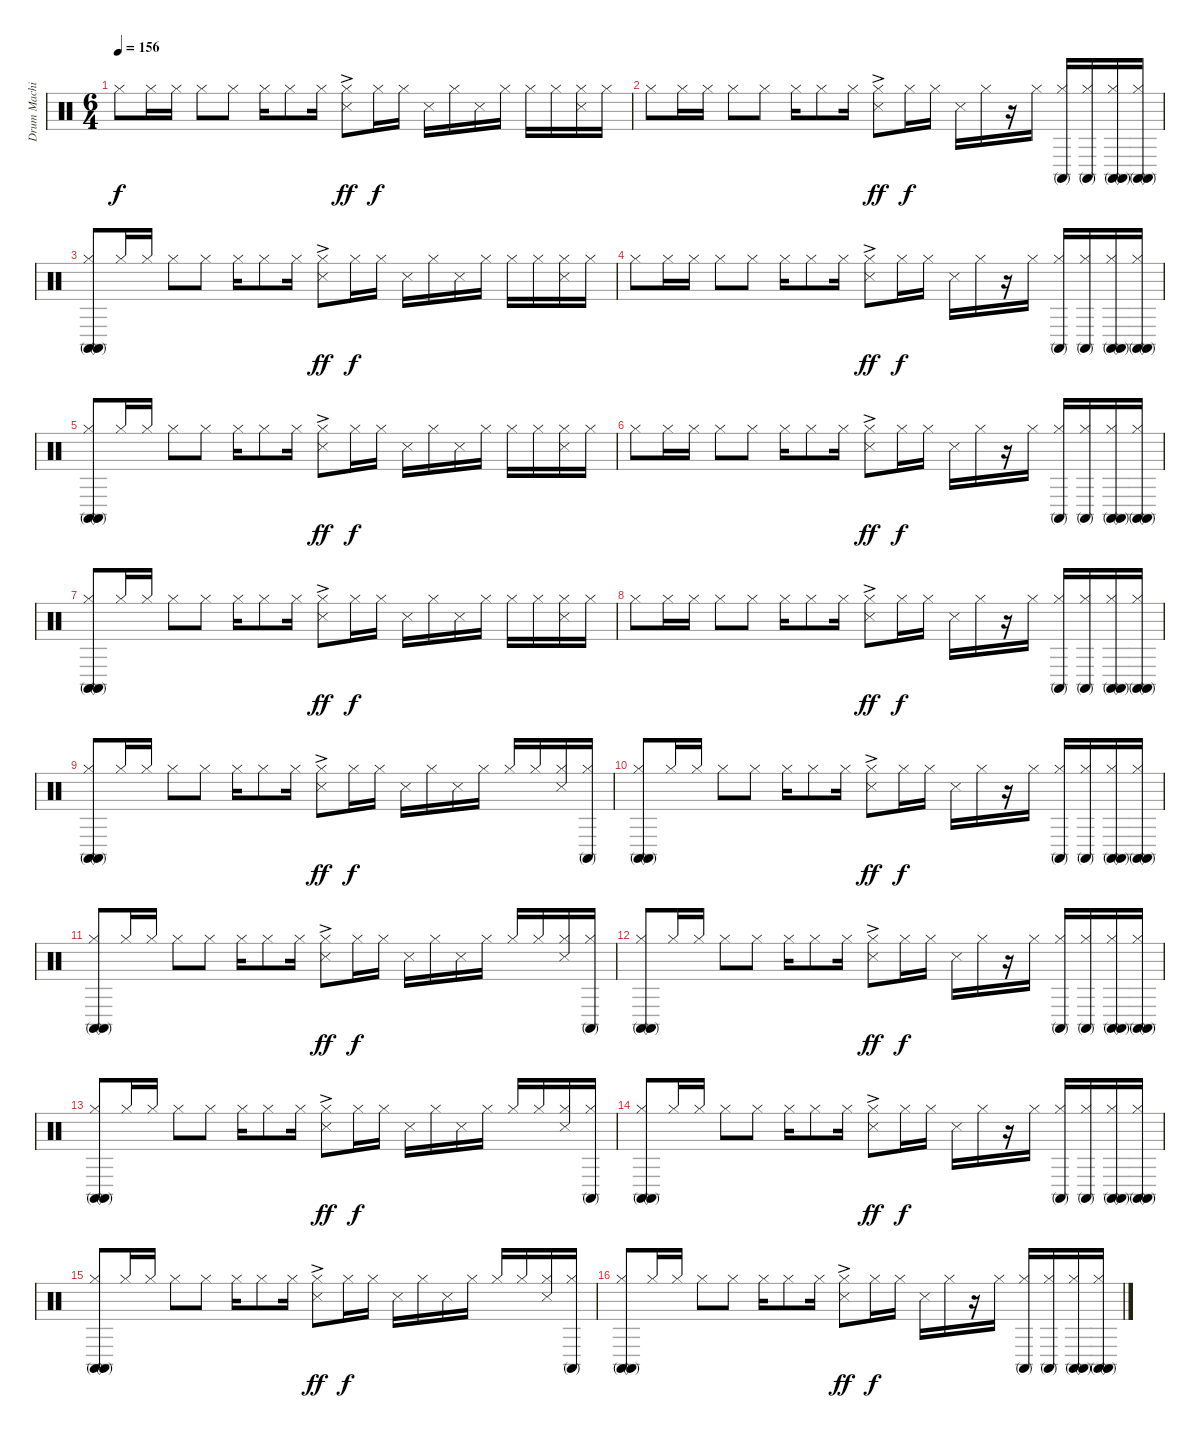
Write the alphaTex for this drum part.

\track ("Drum Machine" "Drum Machi") {instrument percussion bank 210}
\staff {score}
\articulation defaults
\ts (6 4)
\tempo 156
\clef neutral
\ks c "Hi-Hat (closed)".8{dy f} "Hi-Hat (closed)".16 "Hi-Hat (closed)".16 "Hi-Hat (closed)".8 "Hi-Hat (closed)".8 "Hi-Hat (closed)".16 "Hi-Hat (closed)".8 "Hi-Hat (closed)".16
("Hi-Hat (closed)"{ac} "Snare (side stick) 3").8{dy ff} "Hi-Hat (closed)".16{dy f} "Hi-Hat (closed)".16 "Snare (side stick) 3".16 "Hi-Hat (closed)".16 "Snare (side stick) 3".16 "Hi-Hat (closed)".16 "Hi-Hat (closed)".16 "Hi-Hat (closed)".16 ("Hi-Hat (closed)" "Snare (side stick) 3").16 "Hi-Hat (closed)".16 |
"Hi-Hat (closed)".8 "Hi-Hat (closed)".16 "Hi-Hat (closed)".16 "Hi-Hat (closed)".8 "Hi-Hat (closed)".8 "Hi-Hat (closed)".16 "Hi-Hat (closed)".8 "Hi-Hat (closed)".16 ("Hi-Hat (closed)"{ac} "Snare (side stick) 3").8{dy ff} "Hi-Hat (closed)".16{dy f} "Hi-Hat (closed)".16 "Snare (side stick) 3".16 "Hi-Hat (closed)".16 r.16 "Hi-Hat (closed)".16 ("Hi-Hat (closed)" "Conga high (mute)").16 ("Hi-Hat (closed)" "Conga high (mute)").16 ("Hi-Hat (closed)" "Conga high (mute)" "Conga high (mute)").16 ("Hi-Hat (closed)" "Conga high (mute)" "Conga high (mute)").16 |
("Hi-Hat (closed)" "Conga high (mute)" "Conga high (mute)").8 "Hi-Hat (closed)".16 "Hi-Hat (closed)".16 "Hi-Hat (closed)".8 "Hi-Hat (closed)".8 "Hi-Hat (closed)".16 "Hi-Hat (closed)".8 "Hi-Hat (closed)".16 ("Hi-Hat (closed)"{ac} "Snare (side stick) 3").8{dy ff} "Hi-Hat (closed)".16{dy f} "Hi-Hat (closed)".16 "Snare (side stick) 3".16 "Hi-Hat (closed)".16 "Snare (side stick) 3".16 "Hi-Hat (closed)".16 "Hi-Hat (closed)".16 "Hi-Hat (closed)".16 ("Hi-Hat (closed)" "Snare (side stick) 3").16 "Hi-Hat (closed)".16 |
"Hi-Hat (closed)".8 "Hi-Hat (closed)".16 "Hi-Hat (closed)".16 "Hi-Hat (closed)".8 "Hi-Hat (closed)".8 "Hi-Hat (closed)".16 "Hi-Hat (closed)".8 "Hi-Hat (closed)".16 ("Hi-Hat (closed)"{ac} "Snare (side stick) 3").8{dy ff} "Hi-Hat (closed)".16{dy f} "Hi-Hat (closed)".16 "Snare (side stick) 3".16 "Hi-Hat (closed)".16 r.16 "Hi-Hat (closed)".16 ("Hi-Hat (closed)" "Conga high (mute)").16 ("Hi-Hat (closed)" "Conga high (mute)").16 ("Hi-Hat (closed)" "Conga high (mute)" "Conga high (mute)").16 ("Hi-Hat (closed)" "Conga high (mute)" "Conga high (mute)").16 |
("Hi-Hat (closed)" "Conga high (mute)" "Conga high (mute)").8 "Hi-Hat (closed)".16 "Hi-Hat (closed)".16 "Hi-Hat (closed)".8 "Hi-Hat (closed)".8 "Hi-Hat (closed)".16 "Hi-Hat (closed)".8 "Hi-Hat (closed)".16 ("Hi-Hat (closed)"{ac} "Snare (side stick) 3").8{dy ff} "Hi-Hat (closed)".16{dy f} "Hi-Hat (closed)".16 "Snare (side stick) 3".16 "Hi-Hat (closed)".16 "Snare (side stick) 3".16 "Hi-Hat (closed)".16 "Hi-Hat (closed)".16 "Hi-Hat (closed)".16 ("Hi-Hat (closed)" "Snare (side stick) 3").16 "Hi-Hat (closed)".16 |
"Hi-Hat (closed)".8 "Hi-Hat (closed)".16 "Hi-Hat (closed)".16 "Hi-Hat (closed)".8 "Hi-Hat (closed)".8 "Hi-Hat (closed)".16 "Hi-Hat (closed)".8 "Hi-Hat (closed)".16 ("Hi-Hat (closed)"{ac} "Snare (side stick) 3").8{dy ff} "Hi-Hat (closed)".16{dy f} "Hi-Hat (closed)".16 "Snare (side stick) 3".16 "Hi-Hat (closed)".16 r.16 "Hi-Hat (closed)".16 ("Hi-Hat (closed)" "Conga high (mute)").16 ("Hi-Hat (closed)" "Conga high (mute)").16 ("Hi-Hat (closed)" "Conga high (mute)" "Conga high (mute)").16 ("Hi-Hat (closed)" "Conga high (mute)" "Conga high (mute)").16 |
("Hi-Hat (closed)" "Conga high (mute)" "Conga high (mute)").8 "Hi-Hat (closed)".16 "Hi-Hat (closed)".16 "Hi-Hat (closed)".8 "Hi-Hat (closed)".8 "Hi-Hat (closed)".16 "Hi-Hat (closed)".8 "Hi-Hat (closed)".16 ("Hi-Hat (closed)"{ac} "Snare (side stick) 3").8{dy ff} "Hi-Hat (closed)".16{dy f} "Hi-Hat (closed)".16 "Snare (side stick) 3".16 "Hi-Hat (closed)".16 "Snare (side stick) 3".16 "Hi-Hat (closed)".16 "Hi-Hat (closed)".16 "Hi-Hat (closed)".16 ("Hi-Hat (closed)" "Snare (side stick) 3").16 "Hi-Hat (closed)".16 |
"Hi-Hat (closed)".8 "Hi-Hat (closed)".16 "Hi-Hat (closed)".16 "Hi-Hat (closed)".8 "Hi-Hat (closed)".8 "Hi-Hat (closed)".16 "Hi-Hat (closed)".8 "Hi-Hat (closed)".16 ("Hi-Hat (closed)"{ac} "Snare (side stick) 3").8{dy ff} "Hi-Hat (closed)".16{dy f} "Hi-Hat (closed)".16 "Snare (side stick) 3".16 "Hi-Hat (closed)".16 r.16 "Hi-Hat (closed)".16 ("Hi-Hat (closed)" "Conga high (mute)").16 ("Hi-Hat (closed)" "Conga high (mute)").16 ("Hi-Hat (closed)" "Conga high (mute)" "Conga high (mute)").16 ("Hi-Hat (closed)" "Conga high (mute)" "Conga high (mute)").16 |
("Hi-Hat (closed)" "Conga high (mute)" "Conga high (mute)").8 "Hi-Hat (closed)".16 "Hi-Hat (closed)".16 "Hi-Hat (closed)".8 "Hi-Hat (closed)".8 "Hi-Hat (closed)".16 "Hi-Hat (closed)".8 "Hi-Hat (closed)".16 ("Hi-Hat (closed)"{ac} "Snare (side stick) 3").8{dy ff} "Hi-Hat (closed)".16{dy f} "Hi-Hat (closed)".16 "Snare (side stick) 3".16 "Hi-Hat (closed)".16 "Snare (side stick) 3".16 "Hi-Hat (closed)".16 "Hi-Hat (closed)".16 "Hi-Hat (closed)".16 ("Hi-Hat (closed)" "Snare (side stick) 3").16 ("Hi-Hat (closed)" "Conga high (mute)").16 |
("Hi-Hat (closed)" "Conga high (mute)" "Conga high (mute)").8 "Hi-Hat (closed)".16 "Hi-Hat (closed)".16 "Hi-Hat (closed)".8 "Hi-Hat (closed)".8 "Hi-Hat (closed)".16 "Hi-Hat (closed)".8 "Hi-Hat (closed)".16 ("Hi-Hat (closed)"{ac} "Snare (side stick) 3").8{dy ff} "Hi-Hat (closed)".16{dy f} "Hi-Hat (closed)".16 "Snare (side stick) 3".16 "Hi-Hat (closed)".16 r.16 "Hi-Hat (closed)".16 ("Hi-Hat (closed)" "Conga high (mute)").16 ("Hi-Hat (closed)" "Conga high (mute)").16 ("Hi-Hat (closed)" "Conga high (mute)" "Conga high (mute)").16 ("Hi-Hat (closed)" "Conga high (mute)" "Conga high (mute)").16 |
("Hi-Hat (closed)" "Conga high (mute)" "Conga high (mute)").8 "Hi-Hat (closed)".16 "Hi-Hat (closed)".16 "Hi-Hat (closed)".8 "Hi-Hat (closed)".8 "Hi-Hat (closed)".16 "Hi-Hat (closed)".8 "Hi-Hat (closed)".16 ("Hi-Hat (closed)"{ac} "Snare (side stick) 3").8{dy ff} "Hi-Hat (closed)".16{dy f} "Hi-Hat (closed)".16 "Snare (side stick) 3".16 "Hi-Hat (closed)".16 "Snare (side stick) 3".16 "Hi-Hat (closed)".16 "Hi-Hat (closed)".16 "Hi-Hat (closed)".16 ("Hi-Hat (closed)" "Snare (side stick) 3").16 ("Hi-Hat (closed)" "Conga high (mute)").16 |
("Hi-Hat (closed)" "Conga high (mute)" "Conga high (mute)").8 "Hi-Hat (closed)".16 "Hi-Hat (closed)".16 "Hi-Hat (closed)".8 "Hi-Hat (closed)".8 "Hi-Hat (closed)".16 "Hi-Hat (closed)".8 "Hi-Hat (closed)".16 ("Hi-Hat (closed)"{ac} "Snare (side stick) 3").8{dy ff} "Hi-Hat (closed)".16{dy f} "Hi-Hat (closed)".16 "Snare (side stick) 3".16 "Hi-Hat (closed)".16 r.16 "Hi-Hat (closed)".16 ("Hi-Hat (closed)" "Conga high (mute)").16 ("Hi-Hat (closed)" "Conga high (mute)").16 ("Hi-Hat (closed)" "Conga high (mute)" "Conga high (mute)").16 ("Hi-Hat (closed)" "Conga high (mute)" "Conga high (mute)").16 |
("Hi-Hat (closed)" "Conga high (mute)" "Conga high (mute)").8 "Hi-Hat (closed)".16 "Hi-Hat (closed)".16 "Hi-Hat (closed)".8 "Hi-Hat (closed)".8 "Hi-Hat (closed)".16 "Hi-Hat (closed)".8 "Hi-Hat (closed)".16 ("Hi-Hat (closed)"{ac} "Snare (side stick) 3").8{dy ff} "Hi-Hat (closed)".16{dy f} "Hi-Hat (closed)".16 "Snare (side stick) 3".16 "Hi-Hat (closed)".16 "Snare (side stick) 3".16 "Hi-Hat (closed)".16 "Hi-Hat (closed)".16 "Hi-Hat (closed)".16 ("Hi-Hat (closed)" "Snare (side stick) 3").16 ("Hi-Hat (closed)" "Conga high (mute)").16 |
("Hi-Hat (closed)" "Conga high (mute)" "Conga high (mute)").8 "Hi-Hat (closed)".16 "Hi-Hat (closed)".16 "Hi-Hat (closed)".8 "Hi-Hat (closed)".8 "Hi-Hat (closed)".16 "Hi-Hat (closed)".8 "Hi-Hat (closed)".16 ("Hi-Hat (closed)"{ac} "Snare (side stick) 3").8{dy ff} "Hi-Hat (closed)".16{dy f} "Hi-Hat (closed)".16 "Snare (side stick) 3".16 "Hi-Hat (closed)".16 r.16 "Hi-Hat (closed)".16 ("Hi-Hat (closed)" "Conga high (mute)").16 ("Hi-Hat (closed)" "Conga high (mute)").16 ("Hi-Hat (closed)" "Conga high (mute)" "Conga high (mute)").16 ("Hi-Hat (closed)" "Conga high (mute)" "Conga high (mute)").16 |
("Hi-Hat (closed)" "Conga high (mute)" "Conga high (mute)").8 "Hi-Hat (closed)".16 "Hi-Hat (closed)".16 "Hi-Hat (closed)".8 "Hi-Hat (closed)".8 "Hi-Hat (closed)".16 "Hi-Hat (closed)".8 "Hi-Hat (closed)".16 ("Hi-Hat (closed)"{ac} "Snare (side stick) 3").8{dy ff} "Hi-Hat (closed)".16{dy f} "Hi-Hat (closed)".16 "Snare (side stick) 3".16 "Hi-Hat (closed)".16 "Snare (side stick) 3".16 "Hi-Hat (closed)".16 "Hi-Hat (closed)".16 "Hi-Hat (closed)".16 ("Hi-Hat (closed)" "Snare (side stick) 3").16 ("Hi-Hat (closed)" "Conga high (mute)").16 |
("Hi-Hat (closed)" "Conga high (mute)" "Conga high (mute)").8 "Hi-Hat (closed)".16 "Hi-Hat (closed)".16 "Hi-Hat (closed)".8 "Hi-Hat (closed)".8 "Hi-Hat (closed)".16 "Hi-Hat (closed)".8 "Hi-Hat (closed)".16 ("Hi-Hat (closed)"{ac} "Snare (side stick) 3").8{dy ff} "Hi-Hat (closed)".16{dy f} "Hi-Hat (closed)".16 "Snare (side stick) 3".16 "Hi-Hat (closed)".16 r.16 "Hi-Hat (closed)".16 ("Hi-Hat (closed)" "Conga high (mute)").16 ("Hi-Hat (closed)" "Conga high (mute)").16 ("Hi-Hat (closed)" "Conga high (mute)" "Conga high (mute)").16 ("Hi-Hat (closed)" "Conga high (mute)" "Conga high (mute)").16
